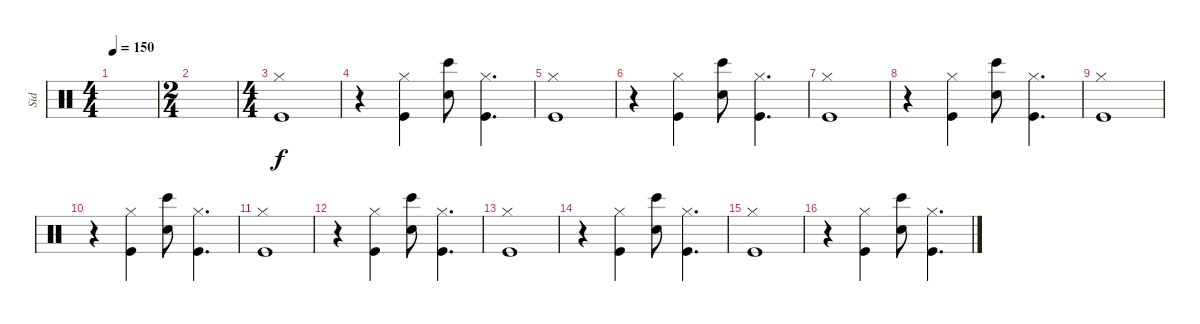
\track ("Sid" "Sid") {instrument percussion}
\staff {score}
\articulation defaults
\ts (4 4)
\tempo 150
\clef neutral
\ks c
|
\ts (2 4)
|
\ts (4 4)
("Hi-Hat (closed)" "Kick (hit)").1 |
r.4 ("Hi-Hat (closed)" "Kick (hit)").4 ("Snare (hit) 2" "Bongo High (hit)").8 ("Hi-Hat (closed)" "Kick (hit)").4{d} |
("Hi-Hat (closed)" "Kick (hit)").1 |
r.4 ("Hi-Hat (closed)" "Kick (hit)").4 ("Snare (hit) 2" "Bongo High (hit)").8 ("Hi-Hat (closed)" "Kick (hit)").4{d} |
("Hi-Hat (closed)" "Kick (hit)").1 |
r.4 ("Hi-Hat (closed)" "Kick (hit)").4 ("Snare (hit) 2" "Bongo High (hit)").8 ("Hi-Hat (closed)" "Kick (hit)").4{d} |
("Hi-Hat (closed)" "Kick (hit)").1 |
r.4 ("Hi-Hat (closed)" "Kick (hit)").4 ("Snare (hit) 2" "Bongo High (hit)").8 ("Hi-Hat (closed)" "Kick (hit)").4{d} |
("Hi-Hat (closed)" "Kick (hit)").1 |
r.4 ("Hi-Hat (closed)" "Kick (hit)").4 ("Snare (hit) 2" "Bongo High (hit)").8 ("Hi-Hat (closed)" "Kick (hit)").4{d} |
("Hi-Hat (closed)" "Kick (hit)").1 |
r.4 ("Hi-Hat (closed)" "Kick (hit)").4 ("Snare (hit) 2" "Bongo High (hit)").8 ("Hi-Hat (closed)" "Kick (hit)").4{d} |
("Hi-Hat (closed)" "Kick (hit)").1 |
r.4 ("Hi-Hat (closed)" "Kick (hit)").4 ("Snare (hit) 2" "Bongo High (hit)").8 ("Hi-Hat (closed)" "Kick (hit)").4{d}
